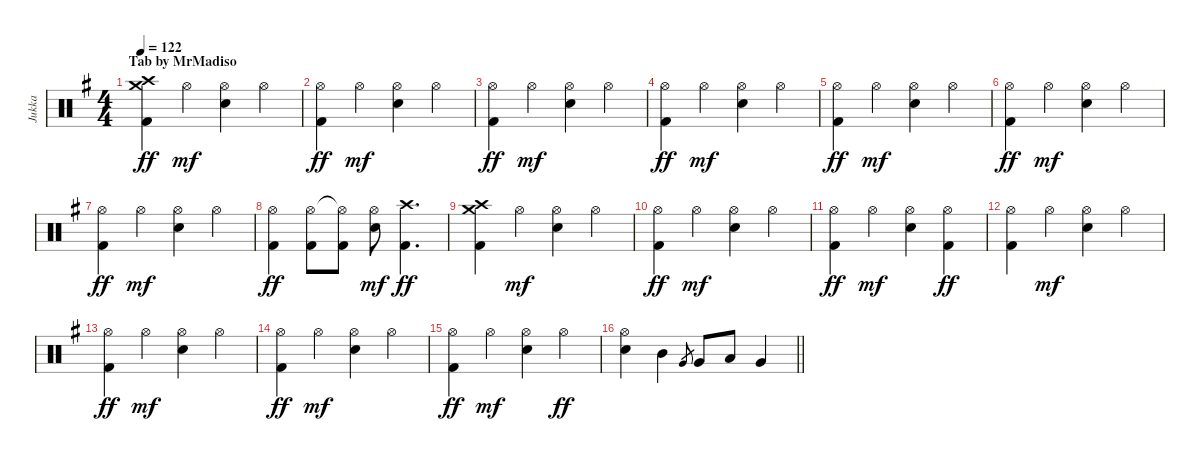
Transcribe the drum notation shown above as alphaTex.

\track ("Jukka" "Jukka") {instrument percussion}
\staff {score}
\articulation defaults
\ts (4 4)
\section ("" "Tab by MrMadiso")
\tempo 122
\clef neutral
\ks g
("Crash medium (hit)" "Crash high (hit)" "Kick (hit) 2").4{dy ff} "Hi-Hat (open)".4{dy mf} ("Hi-Hat (open)" "Electric Snare (hit)").4 "Hi-Hat (open)".4 |
("Hi-Hat (open)" "Kick (hit) 2").4{dy ff} "Hi-Hat (open)".4{dy mf} ("Hi-Hat (open)" "Electric Snare (hit)").4 "Hi-Hat (open)".4 |
("Hi-Hat (open)" "Kick (hit) 2").4{dy ff} "Hi-Hat (open)".4{dy mf} ("Hi-Hat (open)" "Electric Snare (hit)").4 "Hi-Hat (open)".4 |
("Hi-Hat (open)" "Kick (hit) 2").4{dy ff} "Hi-Hat (open)".4{dy mf} ("Hi-Hat (open)" "Electric Snare (hit)").4 "Hi-Hat (open)".4 |
("Hi-Hat (open)" "Kick (hit) 2").4{dy ff} "Hi-Hat (open)".4{dy mf} ("Hi-Hat (open)" "Electric Snare (hit)").4 "Hi-Hat (open)".4 |
("Hi-Hat (open)" "Kick (hit) 2").4{dy ff} "Hi-Hat (open)".4{dy mf} ("Hi-Hat (open)" "Electric Snare (hit)").4 "Hi-Hat (open)".4 |
("Hi-Hat (open)" "Kick (hit) 2").4{dy ff} "Hi-Hat (open)".4{dy mf} ("Hi-Hat (open)" "Electric Snare (hit)").4 "Hi-Hat (open)".4 |
("Hi-Hat (open)" "Kick (hit) 2").4{dy ff} ("Hi-Hat (open)" "Kick (hit) 2").8 ("Hi-Hat (open)"{t} "Kick (hit) 2").8 ("Hi-Hat (open)" "Electric Snare (hit)").8{dy mf} ("Crash high (hit)" "Kick (hit) 2").4{d dy ff} |
("Crash medium (hit)" "Crash high (hit)" "Kick (hit) 2").4 "Hi-Hat (open)".4{dy mf} ("Hi-Hat (open)" "Electric Snare (hit)").4 "Hi-Hat (open)".4 |
("Hi-Hat (open)" "Kick (hit) 2").4{dy ff} "Hi-Hat (open)".4{dy mf} ("Hi-Hat (open)" "Electric Snare (hit)").4 "Hi-Hat (open)".4 |
("Hi-Hat (open)" "Kick (hit) 2").4{dy ff} "Hi-Hat (open)".4{dy mf} ("Hi-Hat (open)" "Electric Snare (hit)").4 ("Hi-Hat (open)" "Kick (hit) 2").4{dy ff} |
("Hi-Hat (open)" "Kick (hit) 2").4 "Hi-Hat (open)".4{dy mf} ("Hi-Hat (open)" "Electric Snare (hit)").4 "Hi-Hat (open)".4 |
("Hi-Hat (open)" "Kick (hit) 2").4{dy ff} "Hi-Hat (open)".4{dy mf} ("Hi-Hat (open)" "Electric Snare (hit)").4 "Hi-Hat (open)".4 |
("Hi-Hat (open)" "Kick (hit) 2").4{dy ff} "Hi-Hat (open)".4{dy mf} ("Hi-Hat (open)" "Electric Snare (hit)").4 "Hi-Hat (open)".4 |
("Hi-Hat (open)" "Kick (hit) 2").4{dy ff} "Hi-Hat (open)".4{dy mf} ("Hi-Hat (open)" "Electric Snare (hit)").4 "Hi-Hat (open)".4{dy ff} |
\barLineRight lightlight
("Hi-Hat (open)" "Electric Snare (hit)").4 "Mid Tom (hit)".4 "Very Low Tom (hit)".8{gr} "Very Low Tom (hit)".8 "Low Floor Tom (hit)".8 "Very Low Tom (hit)".4
